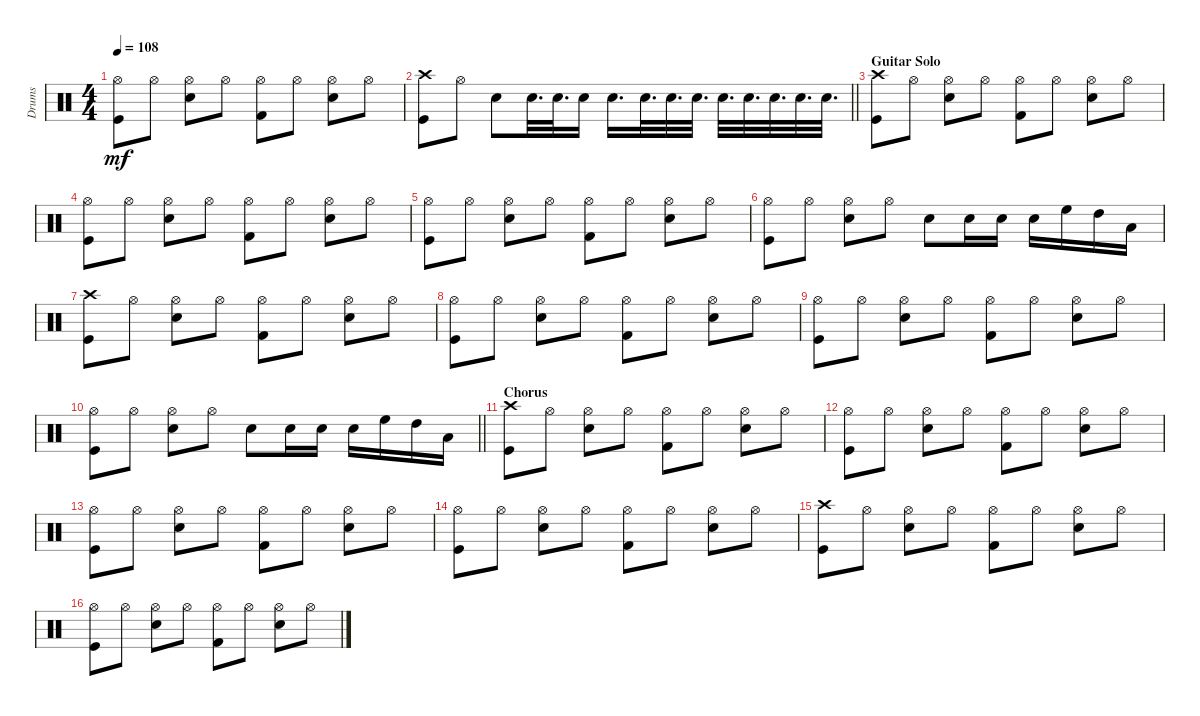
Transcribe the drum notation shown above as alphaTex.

\track ("Drums" "Drums") {instrument percussion}
\staff {score}
\articulation defaults
\ts (4 4)
\tempo 108
\clef neutral
\ks c
("Hi-Hat (open)" "Kick (hit)").8{dy mf} "Hi-Hat (open)".8 ("Hi-Hat (open)" "Snare (hit) 2").8 "Hi-Hat (open)".8 ("Hi-Hat (open)" "Kick (hit) 2").8 "Hi-Hat (open)".8 ("Hi-Hat (open)" "Snare (hit) 2").8 "Hi-Hat (open)".8 |
\barLineRight lightlight
("Crash high (hit)" "Kick (hit)").8 "Hi-Hat (open)".8 "Snare (hit) 2".8 "Snare (hit) 2".32{d} "Snare (hit) 2".32{d} "Snare (hit) 2".16 "Snare (hit) 2".16{d} "Snare (hit) 2".32{d} "Snare (hit) 2".32{d} "Snare (hit) 2".32{d} "Snare (hit) 2".32{d} "Snare (hit) 2".32{d} "Snare (hit) 2".32{d} "Snare (hit) 2".32{d} "Snare (hit) 2".32{d} |
\section ("" "Guitar Solo")
("Crash high (hit)" "Kick (hit)").8 "Hi-Hat (open)".8 ("Hi-Hat (open)" "Snare (hit) 2").8 "Hi-Hat (open)".8 ("Hi-Hat (open)" "Kick (hit) 2").8 "Hi-Hat (open)".8 ("Hi-Hat (open)" "Snare (hit) 2").8 "Hi-Hat (open)".8 |
("Hi-Hat (open)" "Kick (hit)").8 "Hi-Hat (open)".8 ("Hi-Hat (open)" "Snare (hit) 2").8 "Hi-Hat (open)".8 ("Hi-Hat (open)" "Kick (hit) 2").8 "Hi-Hat (open)".8 ("Hi-Hat (open)" "Snare (hit) 2").8 "Hi-Hat (open)".8 |
("Hi-Hat (open)" "Kick (hit)").8 "Hi-Hat (open)".8 ("Hi-Hat (open)" "Snare (hit) 2").8 "Hi-Hat (open)".8 ("Hi-Hat (open)" "Kick (hit) 2").8 "Hi-Hat (open)".8 ("Hi-Hat (open)" "Snare (hit) 2").8 "Hi-Hat (open)".8 |
("Kick (hit)" "Hi-Hat (open)").8 "Hi-Hat (open)".8 ("Snare (hit) 2" "Hi-Hat (open)").8 "Hi-Hat (open)".8 "Snare (hit) 2".8 "Snare (hit) 2".16 "Snare (hit) 2".16 "Snare (hit) 2".16 "High Floor Tom (hit)".16 "High Tom (hit)".16 "Low Floor Tom (hit)".16 |
("Crash high (hit)" "Kick (hit)").8 "Hi-Hat (open)".8 ("Hi-Hat (open)" "Snare (hit) 2").8 "Hi-Hat (open)".8 ("Hi-Hat (open)" "Kick (hit) 2").8 "Hi-Hat (open)".8 ("Hi-Hat (open)" "Snare (hit) 2").8 "Hi-Hat (open)".8 |
("Hi-Hat (open)" "Kick (hit)").8 "Hi-Hat (open)".8 ("Hi-Hat (open)" "Snare (hit) 2").8 "Hi-Hat (open)".8 ("Hi-Hat (open)" "Kick (hit) 2").8 "Hi-Hat (open)".8 ("Hi-Hat (open)" "Snare (hit) 2").8 "Hi-Hat (open)".8 |
("Hi-Hat (open)" "Kick (hit)").8 "Hi-Hat (open)".8 ("Hi-Hat (open)" "Snare (hit) 2").8 "Hi-Hat (open)".8 ("Hi-Hat (open)" "Kick (hit) 2").8 "Hi-Hat (open)".8 ("Hi-Hat (open)" "Snare (hit) 2").8 "Hi-Hat (open)".8 |
\barLineRight lightlight
("Kick (hit)" "Hi-Hat (open)").8 "Hi-Hat (open)".8 ("Snare (hit) 2" "Hi-Hat (open)").8 "Hi-Hat (open)".8 "Snare (hit) 2".8 "Snare (hit) 2".16 "Snare (hit) 2".16 "Snare (hit) 2".16 "High Floor Tom (hit)".16 "High Tom (hit)".16 "Low Floor Tom (hit)".16 |
\section ("" "Chorus")
("Crash high (hit)" "Kick (hit)").8 "Hi-Hat (open)".8 ("Hi-Hat (open)" "Snare (hit) 2").8 "Hi-Hat (open)".8 ("Hi-Hat (open)" "Kick (hit) 2").8 "Hi-Hat (open)".8 ("Hi-Hat (open)" "Snare (hit) 2").8 "Hi-Hat (open)".8 |
("Hi-Hat (open)" "Kick (hit)").8 "Hi-Hat (open)".8 ("Hi-Hat (open)" "Snare (hit) 2").8 "Hi-Hat (open)".8 ("Hi-Hat (open)" "Kick (hit) 2").8 "Hi-Hat (open)".8 ("Hi-Hat (open)" "Snare (hit) 2").8 "Hi-Hat (open)".8 |
("Hi-Hat (open)" "Kick (hit)").8 "Hi-Hat (open)".8 ("Hi-Hat (open)" "Snare (hit) 2").8 "Hi-Hat (open)".8 ("Hi-Hat (open)" "Kick (hit) 2").8 "Hi-Hat (open)".8 ("Hi-Hat (open)" "Snare (hit) 2").8 "Hi-Hat (open)".8 |
("Hi-Hat (open)" "Kick (hit)").8 "Hi-Hat (open)".8 ("Hi-Hat (open)" "Snare (hit) 2").8 "Hi-Hat (open)".8 ("Hi-Hat (open)" "Kick (hit) 2").8 "Hi-Hat (open)".8 ("Hi-Hat (open)" "Snare (hit) 2").8 "Hi-Hat (open)".8 |
("Crash high (hit)" "Kick (hit)").8 "Hi-Hat (open)".8 ("Hi-Hat (open)" "Snare (hit) 2").8 "Hi-Hat (open)".8 ("Hi-Hat (open)" "Kick (hit) 2").8 "Hi-Hat (open)".8 ("Hi-Hat (open)" "Snare (hit) 2").8 "Hi-Hat (open)".8 |
("Hi-Hat (open)" "Kick (hit)").8 "Hi-Hat (open)".8 ("Hi-Hat (open)" "Snare (hit) 2").8 "Hi-Hat (open)".8 ("Hi-Hat (open)" "Kick (hit) 2").8 "Hi-Hat (open)".8 ("Hi-Hat (open)" "Snare (hit) 2").8 "Hi-Hat (open)".8
